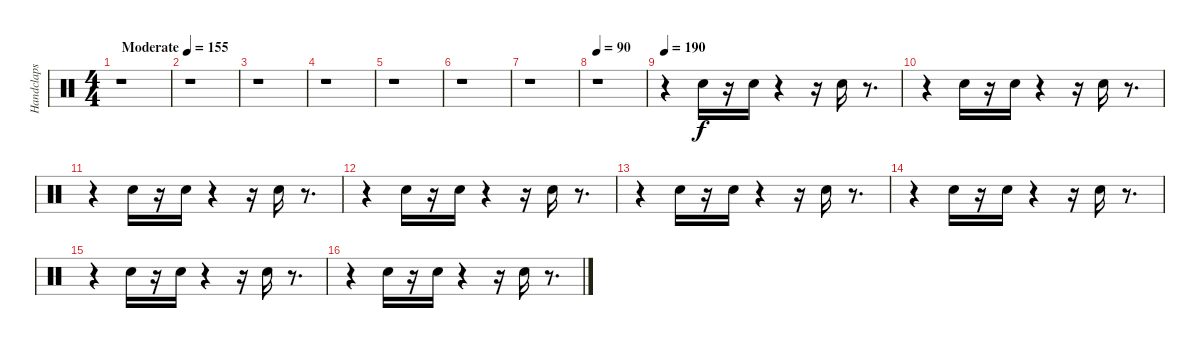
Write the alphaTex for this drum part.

\track ("Handclaps" "Handclaps") {instrument percussion}
\staff {score}
\articulation defaults
\ts (4 4)
\tempo (155 "Moderate")
\clef neutral
\ks c
r.1{dy f} |
r.1 |
r.1 |
r.1 |
r.1 |
r.1 |
r.1 |
\tempo 90
r.1 |
\tempo 190
r.4 "Hand Clap (hit)".16 r.16 "Hand Clap (hit)".16 r.4 r.16 "Hand Clap (hit)".16 r.8{d} |
r.4 "Hand Clap (hit)".16 r.16 "Hand Clap (hit)".16 r.4 r.16 "Hand Clap (hit)".16 r.8{d} |
r.4 "Hand Clap (hit)".16 r.16 "Hand Clap (hit)".16 r.4 r.16 "Hand Clap (hit)".16 r.8{d} |
r.4 "Hand Clap (hit)".16 r.16 "Hand Clap (hit)".16 r.4 r.16 "Hand Clap (hit)".16 r.8{d} |
r.4 "Hand Clap (hit)".16 r.16 "Hand Clap (hit)".16 r.4 r.16 "Hand Clap (hit)".16 r.8{d} |
r.4 "Hand Clap (hit)".16 r.16 "Hand Clap (hit)".16 r.4 r.16 "Hand Clap (hit)".16 r.8{d} |
r.4 "Hand Clap (hit)".16 r.16 "Hand Clap (hit)".16 r.4 r.16 "Hand Clap (hit)".16 r.8{d} |
r.4 "Hand Clap (hit)".16 r.16 "Hand Clap (hit)".16 r.4 r.16 "Hand Clap (hit)".16 r.8{d}
